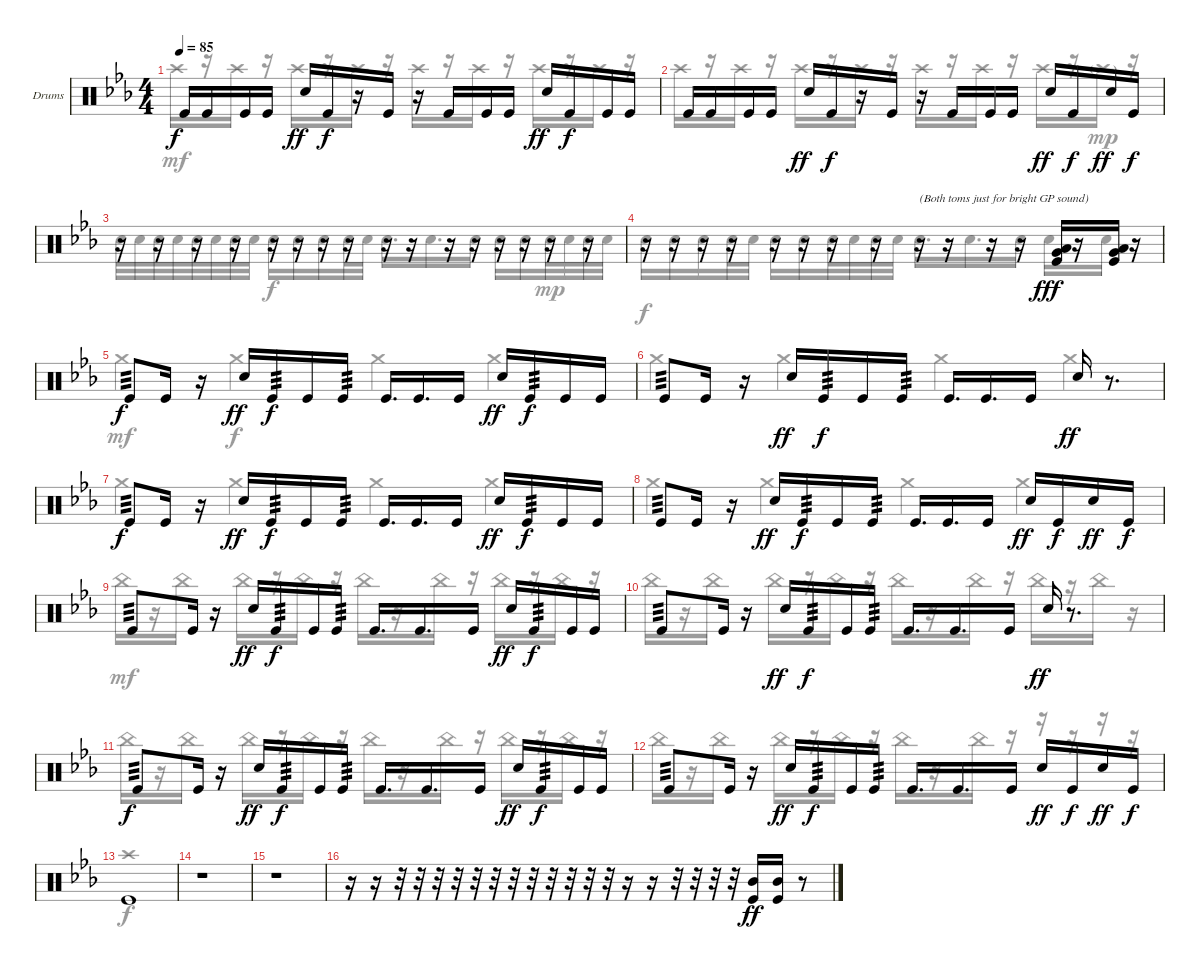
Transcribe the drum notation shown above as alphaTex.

\defaultSystemsLayout 4
\bracketExtendMode groupsimilarinstruments
\firstSystemTrackNameOrientation horizontal
\otherSystemsTrackNameOrientation horizontal
\track ("Drums" "Drums") {instrument percussion}
\staff {score}
\articulation defaults
\voice
\ts (4 4)
\tempo 85
\clef neutral
\ks eb "Kick (hit)".16{dy f} "Kick (hit)".16 "Kick (hit)".16 "Kick (hit)".16 "Snare (hit) 2".16{dy ff} "Kick (hit)".16{dy f}
r.16 "Kick (hit)".16 r.16 "Kick (hit)".16 "Kick (hit)".16 "Kick (hit)".16 "Snare (hit) 2".16{dy ff} "Kick (hit)".16{dy f} "Kick (hit)".16 "Kick (hit)".16 |
"Kick (hit)".16 "Kick (hit)".16 "Kick (hit)".16 "Kick (hit)".16 "Snare (hit) 2".16{dy ff} "Kick (hit)".16{dy f} r.16 "Kick (hit)".16 r.16 "Kick (hit)".16 "Kick (hit)".16 "Kick (hit)".16 "Snare (hit) 2".16{dy ff} "Kick (hit)".16{dy f} "Snare (hit) 2".16{dy ff} "Kick (hit)".16{dy f} |
r.16 r.16 r.16 r.16 r.16 r.16 r.16 r.16 r.16 r.16 r.16 r.16 r.16 r.16 r.16 r.16 |
r.16 r.16 r.16 r.16 r.16 r.16 r.16 r.16 r.16{txt "(Both toms just for bright GP sound)"} r.16 r.16 r.16 ("Low Tom (hit)" "Very Low Tom (hit)" "Kick (hit)").16{dy fff} r.16 ("Low Tom (hit)" "Very Low Tom (hit)" "Kick (hit)").16 r.16 |
"Kick (hit)".8{tp 3 dy f} "Kick (hit)".16 r.16 "Snare (hit) 2".16{dy ff} "Kick (hit)".16{tp 3 dy f} "Kick (hit)".16 "Kick (hit)".16{tp 3} "Kick (hit)".16{d} "Kick (hit)".16{d} "Kick (hit)".16 "Snare (hit) 2".16{dy ff} "Kick (hit)".16{tp 3 dy f} "Kick (hit)".16 "Kick (hit)".16 |
"Kick (hit)".8{tp 3} "Kick (hit)".16 r.16 "Snare (hit) 2".16{dy ff} "Kick (hit)".16{tp 3 dy f} "Kick (hit)".16 "Kick (hit)".16{tp 3} "Kick (hit)".16{d} "Kick (hit)".16{d} "Kick (hit)".16 "Snare (hit) 2".16{dy ff} r.8{d} |
"Kick (hit)".8{tp 3 dy f} "Kick (hit)".16 r.16 "Snare (hit) 2".16{dy ff} "Kick (hit)".16{tp 3 dy f} "Kick (hit)".16 "Kick (hit)".16{tp 3} "Kick (hit)".16{d} "Kick (hit)".16{d} "Kick (hit)".16 "Snare (hit) 2".16{dy ff} "Kick (hit)".16{tp 3 dy f} "Kick (hit)".16 "Kick (hit)".16 |
"Kick (hit)".8{tp 3} "Kick (hit)".16 r.16 "Snare (hit) 2".16{dy ff} "Kick (hit)".16{tp 3 dy f} "Kick (hit)".16 "Kick (hit)".16{tp 3} "Kick (hit)".16{d} "Kick (hit)".16{d} "Kick (hit)".16 "Snare (hit) 2".16{dy ff} "Kick (hit)".16{dy f} "Snare (hit) 2".16{dy ff} "Kick (hit)".16{dy f} |
"Kick (hit)".8{tp 3} "Kick (hit)".16 r.16 "Snare (hit) 2".16{dy ff} "Kick (hit)".16{tp 3 dy f} "Kick (hit)".16 "Kick (hit)".16{tp 3} "Kick (hit)".16{d} "Kick (hit)".16{d} "Kick (hit)".16 "Snare (hit) 2".16{dy ff} "Kick (hit)".16{tp 3 dy f} "Kick (hit)".16 "Kick (hit)".16 |
"Kick (hit)".8{tp 3} "Kick (hit)".16 r.16 "Snare (hit) 2".16{dy ff} "Kick (hit)".16{tp 3 dy f} "Kick (hit)".16 "Kick (hit)".16{tp 3} "Kick (hit)".16{d} "Kick (hit)".16{d} "Kick (hit)".16 "Snare (hit) 2".16{dy ff} r.8{d} |
"Kick (hit)".8{tp 3 dy f} "Kick (hit)".16 r.16 "Snare (hit) 2".16{dy ff} "Kick (hit)".16{tp 3 dy f} "Kick (hit)".16 "Kick (hit)".16{tp 3} "Kick (hit)".16{d} "Kick (hit)".16{d} "Kick (hit)".16 "Snare (hit) 2".16{dy ff} "Kick (hit)".16{tp 3 dy f} "Kick (hit)".16 "Kick (hit)".16 |
"Kick (hit)".8{tp 3} "Kick (hit)".16 r.16 "Snare (hit) 2".16{dy ff} "Kick (hit)".16{tp 3 dy f} "Kick (hit)".16 "Kick (hit)".16{tp 3} "Kick (hit)".16{d} "Kick (hit)".16{d} "Kick (hit)".16 "Snare (hit) 2".16{dy ff} "Kick (hit)".16{dy f} "Snare (hit) 2".16{dy ff} "Kick (hit)".16{dy f} |
"Kick (hit)".1 |
r.1 |
r.1 |
r.16 r.16 r.32 r.32 r.32 r.32 r.32 r.32 r.32 r.32 r.32 r.32 r.32 r.32 r.16 r.16 r.32 r.32 r.32 r.32 ("Kick (hit)" "Mid Tom (hit)").16{dy ff} ("Kick (hit)" "Mid Tom (hit)").16 r.8
\voice
\clef neutral
\ottava regular
\simile none
\ks eb "Crash high (hit)".16{dy mf}
r.16 "Crash high (hit)".16 r.16 "Crash high (hit)".16 r.16 "Crash high (hit)".16 r.16 "Crash high (hit)".16 r.16 "Crash high (hit)".16 r.16 "Crash high (hit)".16 r.16 "Crash high (hit)".16 r.16 |
"Crash high (hit)".16 r.16 "Crash high (hit)".16 r.16 "Crash high (hit)".16 r.16 "Crash high (hit)".16 r.16 "Crash high (hit)".16 r.16 "Crash high (hit)".16 r.16 "Crash high (hit)".16 r.16 "Crash high (hit)"{g}.16{dy mp} r.16 |
"Snare (hit) 2".32 "Snare (hit) 2".32 "Snare (hit) 2".32 "Snare (hit) 2".32 "Snare (hit) 2".32 "Snare (hit) 2".32 "Snare (hit) 2".32 "Snare (hit) 2".32 "Snare (hit) 2".16{dy f} "Snare (hit) 2".16 "Snare (hit) 2".16 "Snare (hit) 2".32 "Snare (hit) 2".32 "Snare (hit) 2".16{d} "Snare (hit) 2".16{d} "Snare (hit) 2".16 "Snare (hit) 2".16 "Snare (hit) 2".16 "Snare (hit) 2".32{dy mp} "Snare (hit) 2".32 "Snare (hit) 2".32 "Snare (hit) 2".32 |
"Snare (hit) 2".16{dy f} "Snare (hit) 2".16 "Snare (hit) 2".16 "Snare (hit) 2".32 "Snare (hit) 2".32 "Snare (hit) 2".16 "Snare (hit) 2".16 "Snare (hit) 2".32 "Snare (hit) 2".32 "Snare (hit) 2".32 "Snare (hit) 2".32 "Snare (hit) 2".16{d} "Snare (hit) 2".16{d} "Snare (hit) 2".16 "Snare (hit) 2".16 r.16 "Snare (hit) 2".16 r.16 |
"Crash medium (hit)".4{dy mf} "Crash medium (hit)".4{dy f} "Crash medium (hit)".4 "Crash medium (hit)".4 |
"Crash medium (hit)".4 "Crash medium (hit)".4 "Crash medium (hit)".4 "Crash medium (hit)".4 |
"Crash medium (hit)".4 "Crash medium (hit)".4 "Crash medium (hit)".4 "Crash medium (hit)".4 |
"Crash medium (hit)".4 "Crash medium (hit)".4 "Crash medium (hit)".4 "Crash medium (hit)".4 |
"China (hit)".16{dy mf} r.16 "China (hit)".16 r.16 "China (hit)".16 r.16 "China (hit)".16 r.16 "China (hit)".16 r.16 "China (hit)".16 r.16 "China (hit)".16 r.16 "China (hit)".16 r.16 |
"China (hit)".16 r.16 "China (hit)".16 r.16 "China (hit)".16 r.16 "China (hit)".16 r.16 "China (hit)".16 r.16 "China (hit)".16 r.16 "China (hit)".16 r.16 "China (hit)".16 r.16 |
"China (hit)".16 r.16 "China (hit)".16 r.16 "China (hit)".16 r.16 "China (hit)".16 r.16 "China (hit)".16 r.16 "China (hit)".16 r.16 "China (hit)".16 r.16 "China (hit)".16 r.16 |
"China (hit)".16 r.16 "China (hit)".16 r.16 "China (hit)".16 r.16 "China (hit)".16 r.16 "China (hit)".16 r.16 "China (hit)".16 r.16 r.16 r.16 r.16 r.16 |
"Crash high (hit)".1{dy f} |
|
|
